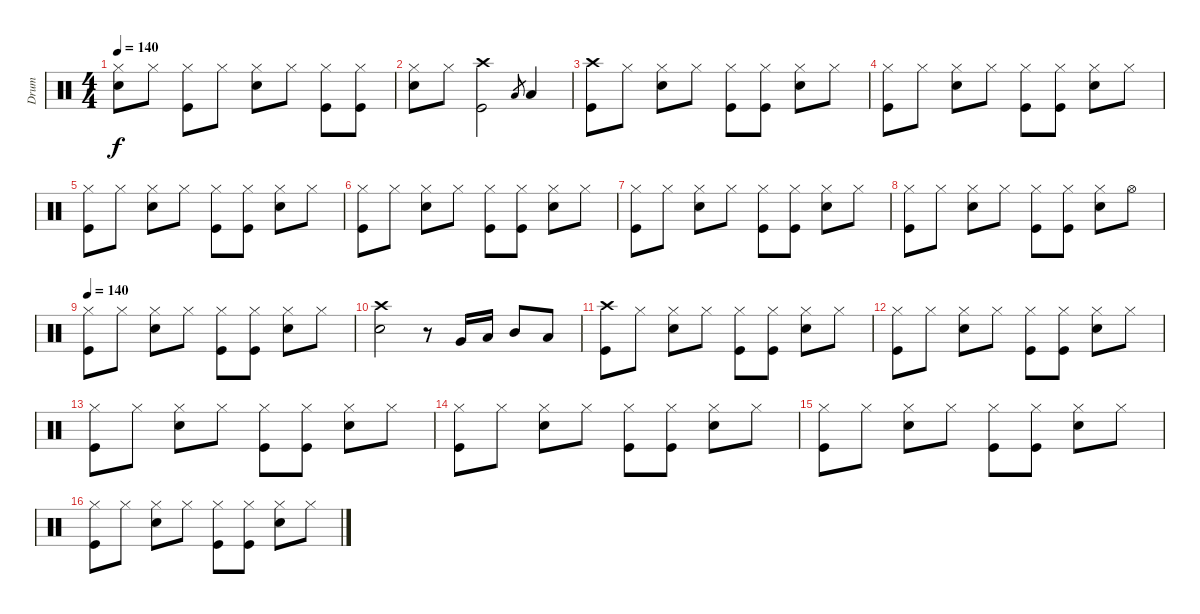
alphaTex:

\track ("Drum" "Drum") {instrument percussion}
\staff {score}
\articulation defaults
\ts (4 4)
\tempo 140
\clef neutral
\ks c
("Hi-Hat (closed)" "Snare (hit) 2").8{dy f} "Hi-Hat (closed)".8 ("Hi-Hat (closed)" "Kick (hit)").8 "Hi-Hat (closed)".8 ("Hi-Hat (closed)" "Snare (hit) 2").8 "Hi-Hat (closed)".8 ("Hi-Hat (closed)" "Kick (hit)").8 ("Hi-Hat (closed)" "Kick (hit)").8 |
("Hi-Hat (closed)" "Snare (hit) 2").8 "Hi-Hat (closed)".8 ("Crash high (hit)" "Kick (hit)").2 "Low Floor Tom (hit)".8{gr} "Low Floor Tom (hit)".4 |
("Crash high (hit)" "Kick (hit)").8 "Hi-Hat (closed)".8 ("Hi-Hat (closed)" "Snare (hit) 2").8 "Hi-Hat (closed)".8 ("Hi-Hat (closed)" "Kick (hit)").8 ("Hi-Hat (closed)" "Kick (hit)").8 ("Hi-Hat (closed)" "Snare (hit) 2").8 "Hi-Hat (closed)".8 |
("Hi-Hat (closed)" "Kick (hit)").8 "Hi-Hat (closed)".8 ("Hi-Hat (closed)" "Snare (hit) 2").8 "Hi-Hat (closed)".8 ("Hi-Hat (closed)" "Kick (hit)").8 ("Hi-Hat (closed)" "Kick (hit)").8 ("Hi-Hat (closed)" "Snare (hit) 2").8 "Hi-Hat (closed)".8 |
("Hi-Hat (closed)" "Kick (hit)").8 "Hi-Hat (closed)".8 ("Hi-Hat (closed)" "Snare (hit) 2").8 "Hi-Hat (closed)".8 ("Hi-Hat (closed)" "Kick (hit)").8 ("Hi-Hat (closed)" "Kick (hit)").8 ("Hi-Hat (closed)" "Snare (hit) 2").8 "Hi-Hat (closed)".8 |
("Hi-Hat (closed)" "Kick (hit)").8 "Hi-Hat (closed)".8 ("Hi-Hat (closed)" "Snare (hit) 2").8 "Hi-Hat (closed)".8 ("Hi-Hat (closed)" "Kick (hit)").8 ("Hi-Hat (closed)" "Kick (hit)").8 ("Hi-Hat (closed)" "Snare (hit) 2").8 "Hi-Hat (closed)".8 |
("Hi-Hat (closed)" "Kick (hit)").8 "Hi-Hat (closed)".8 ("Hi-Hat (closed)" "Snare (hit) 2").8 "Hi-Hat (closed)".8 ("Hi-Hat (closed)" "Kick (hit)").8 ("Hi-Hat (closed)" "Kick (hit)").8 ("Hi-Hat (closed)" "Snare (hit) 2").8 "Hi-Hat (closed)".8 |
("Hi-Hat (closed)" "Kick (hit)").8 "Hi-Hat (closed)".8 ("Hi-Hat (closed)" "Snare (hit) 2").8 "Hi-Hat (closed)".8 ("Hi-Hat (closed)" "Kick (hit)").8 ("Hi-Hat (closed)" "Kick (hit)").8 ("Hi-Hat (closed)" "Snare (hit) 2").8 "Hi-Hat (open)".8 |
\tempo 140
("Hi-Hat (closed)" "Kick (hit)").8 "Hi-Hat (closed)".8 ("Hi-Hat (closed)" "Snare (hit) 2").8 "Hi-Hat (closed)".8 ("Hi-Hat (closed)" "Kick (hit)").8 ("Hi-Hat (closed)" "Kick (hit)").8 ("Hi-Hat (closed)" "Snare (hit) 2").8 "Hi-Hat (closed)".8 |
("Crash high (hit)" "Electric Snare (hit)").2 r.8 "Very Low Tom (hit)".16 "Low Floor Tom (hit)".16 "Mid Tom (hit)".8 "Low Tom (hit)".8 |
("Crash high (hit)" "Kick (hit)").8 "Hi-Hat (closed)".8 ("Hi-Hat (closed)" "Snare (hit) 2").8 "Hi-Hat (closed)".8 ("Hi-Hat (closed)" "Kick (hit)").8 ("Hi-Hat (closed)" "Kick (hit)").8 ("Hi-Hat (closed)" "Snare (hit) 2").8 "Hi-Hat (closed)".8 |
("Hi-Hat (closed)" "Kick (hit)").8 "Hi-Hat (closed)".8 ("Hi-Hat (closed)" "Snare (hit) 2").8 "Hi-Hat (closed)".8 ("Hi-Hat (closed)" "Kick (hit)").8 ("Hi-Hat (closed)" "Kick (hit)").8 ("Hi-Hat (closed)" "Snare (hit) 2").8 "Hi-Hat (closed)".8 |
("Hi-Hat (closed)" "Kick (hit)").8 "Hi-Hat (closed)".8 ("Hi-Hat (closed)" "Snare (hit) 2").8 "Hi-Hat (closed)".8 ("Hi-Hat (closed)" "Kick (hit)").8 ("Hi-Hat (closed)" "Kick (hit)").8 ("Hi-Hat (closed)" "Snare (hit) 2").8 "Hi-Hat (closed)".8 |
("Hi-Hat (closed)" "Kick (hit)").8 "Hi-Hat (closed)".8 ("Hi-Hat (closed)" "Snare (hit) 2").8 "Hi-Hat (closed)".8 ("Hi-Hat (closed)" "Kick (hit)").8 ("Hi-Hat (closed)" "Kick (hit)").8 ("Hi-Hat (closed)" "Snare (hit) 2").8 "Hi-Hat (closed)".8 |
("Hi-Hat (closed)" "Kick (hit)").8 "Hi-Hat (closed)".8 ("Hi-Hat (closed)" "Snare (hit) 2").8 "Hi-Hat (closed)".8 ("Hi-Hat (closed)" "Kick (hit)").8 ("Hi-Hat (closed)" "Kick (hit)").8 ("Hi-Hat (closed)" "Snare (hit) 2").8 "Hi-Hat (closed)".8 |
("Hi-Hat (closed)" "Kick (hit)").8 "Hi-Hat (closed)".8 ("Hi-Hat (closed)" "Snare (hit) 2").8 "Hi-Hat (closed)".8 ("Hi-Hat (closed)" "Kick (hit)").8 ("Hi-Hat (closed)" "Kick (hit)").8 ("Hi-Hat (closed)" "Snare (hit) 2").8 "Hi-Hat (closed)".8
